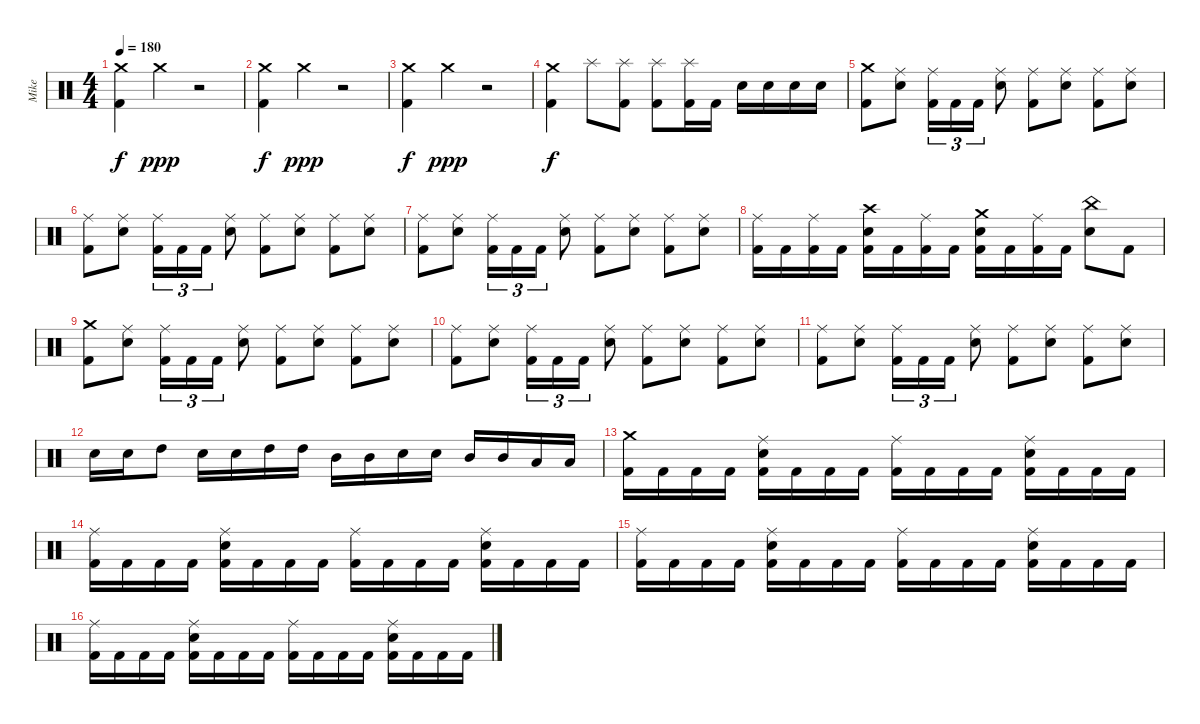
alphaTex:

\track ("Mike" "Mike") {instrument percussion}
\staff {score}
\articulation defaults
\ts (4 4)
\tempo 180
\clef neutral
\ks c
("Crash medium (hit)" "Kick (hit) 2").4{dy f} "Crash medium (hit)".4{dy ppp} r.2 |
("Crash medium (hit)" "Kick (hit) 2").4{dy f} "Crash medium (hit)".4{dy ppp} r.2 |
("Crash medium (hit)" "Kick (hit) 2").4{dy f} "Crash medium (hit)".4{dy ppp} r.2 |
("Crash medium (hit)" "Kick (hit) 2").4{dy f} "Splash (hit)".8 ("Splash (hit)" "Kick (hit) 2").8 ("Splash (hit)" "Kick (hit) 2").8 ("Splash (hit)" "Kick (hit) 2").16 "Kick (hit) 2".16 "Electric Snare (hit)".16 "Electric Snare (hit)".16 "Electric Snare (hit)".16 "Electric Snare (hit)".16 |
("Crash medium (hit)" "Kick (hit) 2").8 ("Ride (middle)" "Electric Snare (hit)").8 ("Ride (middle)" "Kick (hit) 2").16{tu (3 2)} "Kick (hit) 2".16{tu (3 2)} "Kick (hit) 2".16{tu (3 2)} ("Ride (middle)" "Electric Snare (hit)").8 ("Ride (middle)" "Kick (hit) 2").8 ("Ride (middle)" "Electric Snare (hit)").8 ("Ride (middle)" "Kick (hit) 2").8 ("Ride (middle)" "Electric Snare (hit)").8 |
("Ride (middle)" "Kick (hit) 2").8 ("Ride (middle)" "Electric Snare (hit)").8 ("Ride (middle)" "Kick (hit) 2").16{tu (3 2)} "Kick (hit) 2".16{tu (3 2)} "Kick (hit) 2".16{tu (3 2)} ("Ride (middle)" "Electric Snare (hit)").8 ("Ride (middle)" "Kick (hit) 2").8 ("Ride (middle)" "Electric Snare (hit)").8 ("Ride (middle)" "Kick (hit) 2").8 ("Ride (middle)" "Electric Snare (hit)").8 |
("Ride (middle)" "Kick (hit) 2").8 ("Ride (middle)" "Electric Snare (hit)").8 ("Ride (middle)" "Kick (hit) 2").16{tu (3 2)} "Kick (hit) 2".16{tu (3 2)} "Kick (hit) 2".16{tu (3 2)} ("Ride (middle)" "Electric Snare (hit)").8 ("Ride (middle)" "Kick (hit) 2").8 ("Ride (middle)" "Electric Snare (hit)").8 ("Ride (middle)" "Kick (hit) 2").8 ("Ride (middle)" "Electric Snare (hit)").8 |
("Ride (middle)" "Kick (hit) 2").16 "Kick (hit) 2".16 ("Ride (middle)" "Kick (hit) 2").16 "Kick (hit) 2".16 ("Crash high (hit)" "Electric Snare (hit)" "Kick (hit) 2").16 "Kick (hit) 2".16 ("Ride (middle)" "Kick (hit) 2").16 "Kick (hit) 2".16 ("Crash medium (hit)" "Electric Snare (hit)" "Kick (hit) 2").16 "Kick (hit) 2".16 ("Ride (middle)" "Kick (hit) 2").16 "Kick (hit) 2".16 ("China (hit)" "Electric Snare (hit)").8 "Kick (hit) 2".8 |
("Crash medium (hit)" "Kick (hit) 2").8 ("Ride (middle)" "Electric Snare (hit)").8 ("Ride (middle)" "Kick (hit) 2").16{tu (3 2)} "Kick (hit) 2".16{tu (3 2)} "Kick (hit) 2".16{tu (3 2)} ("Ride (middle)" "Electric Snare (hit)").8 ("Ride (middle)" "Kick (hit) 2").8 ("Ride (middle)" "Electric Snare (hit)").8 ("Ride (middle)" "Kick (hit) 2").8 ("Ride (middle)" "Electric Snare (hit)").8 |
("Ride (middle)" "Kick (hit) 2").8 ("Ride (middle)" "Electric Snare (hit)").8 ("Ride (middle)" "Kick (hit) 2").16{tu (3 2)} "Kick (hit) 2".16{tu (3 2)} "Kick (hit) 2".16{tu (3 2)} ("Ride (middle)" "Electric Snare (hit)").8 ("Ride (middle)" "Kick (hit) 2").8 ("Ride (middle)" "Electric Snare (hit)").8 ("Ride (middle)" "Kick (hit) 2").8 ("Ride (middle)" "Electric Snare (hit)").8 |
("Ride (middle)" "Kick (hit) 2").8 ("Ride (middle)" "Electric Snare (hit)").8 ("Ride (middle)" "Kick (hit) 2").16{tu (3 2)} "Kick (hit) 2".16{tu (3 2)} "Kick (hit) 2".16{tu (3 2)} ("Ride (middle)" "Electric Snare (hit)").8 ("Ride (middle)" "Kick (hit) 2").8 ("Ride (middle)" "Electric Snare (hit)").8 ("Ride (middle)" "Kick (hit) 2").8 ("Ride (middle)" "Electric Snare (hit)").8 |
"Electric Snare (hit)".16 "Electric Snare (hit)".16 "High Tom (hit)".8 "Electric Snare (hit)".16 "Electric Snare (hit)".16 "High Tom (hit)".16 "High Tom (hit)".16 "Mid Tom (hit)".16 "Mid Tom (hit)".16 "Electric Snare (hit)".16 "Electric Snare (hit)".16 "Mid Tom (hit)".16 "Mid Tom (hit)".16 "Low Tom (hit)".16 "Low Tom (hit)".16 |
("Crash medium (hit)" "Kick (hit) 2").16 "Kick (hit) 2".16 "Kick (hit) 2".16 "Kick (hit) 2".16 ("Ride (middle)" "Electric Snare (hit)" "Kick (hit) 2").16 "Kick (hit) 2".16 "Kick (hit) 2".16 "Kick (hit) 2".16 ("Ride (middle)" "Kick (hit) 2").16 "Kick (hit) 2".16 "Kick (hit) 2".16 "Kick (hit) 2".16 ("Ride (middle)" "Electric Snare (hit)" "Kick (hit) 2").16 "Kick (hit) 2".16 "Kick (hit) 2".16 "Kick (hit) 2".16 |
("Ride (middle)" "Kick (hit) 2").16 "Kick (hit) 2".16 "Kick (hit) 2".16 "Kick (hit) 2".16 ("Ride (middle)" "Electric Snare (hit)" "Kick (hit) 2").16 "Kick (hit) 2".16 "Kick (hit) 2".16 "Kick (hit) 2".16 ("Ride (middle)" "Kick (hit) 2").16 "Kick (hit) 2".16 "Kick (hit) 2".16 "Kick (hit) 2".16 ("Ride (middle)" "Electric Snare (hit)" "Kick (hit) 2").16 "Kick (hit) 2".16 "Kick (hit) 2".16 "Kick (hit) 2".16 |
("Ride (middle)" "Kick (hit) 2").16 "Kick (hit) 2".16 "Kick (hit) 2".16 "Kick (hit) 2".16 ("Ride (middle)" "Electric Snare (hit)" "Kick (hit) 2").16 "Kick (hit) 2".16 "Kick (hit) 2".16 "Kick (hit) 2".16 ("Ride (middle)" "Kick (hit) 2").16 "Kick (hit) 2".16 "Kick (hit) 2".16 "Kick (hit) 2".16 ("Ride (middle)" "Electric Snare (hit)" "Kick (hit) 2").16 "Kick (hit) 2".16 "Kick (hit) 2".16 "Kick (hit) 2".16 |
("Ride (middle)" "Kick (hit) 2").16 "Kick (hit) 2".16 "Kick (hit) 2".16 "Kick (hit) 2".16 ("Ride (middle)" "Electric Snare (hit)" "Kick (hit) 2").16 "Kick (hit) 2".16 "Kick (hit) 2".16 "Kick (hit) 2".16 ("Ride (middle)" "Kick (hit) 2").16 "Kick (hit) 2".16 "Kick (hit) 2".16 "Kick (hit) 2".16 ("Ride (middle)" "Electric Snare (hit)" "Kick (hit) 2").16 "Kick (hit) 2".16 "Kick (hit) 2".16 "Kick (hit) 2".16
